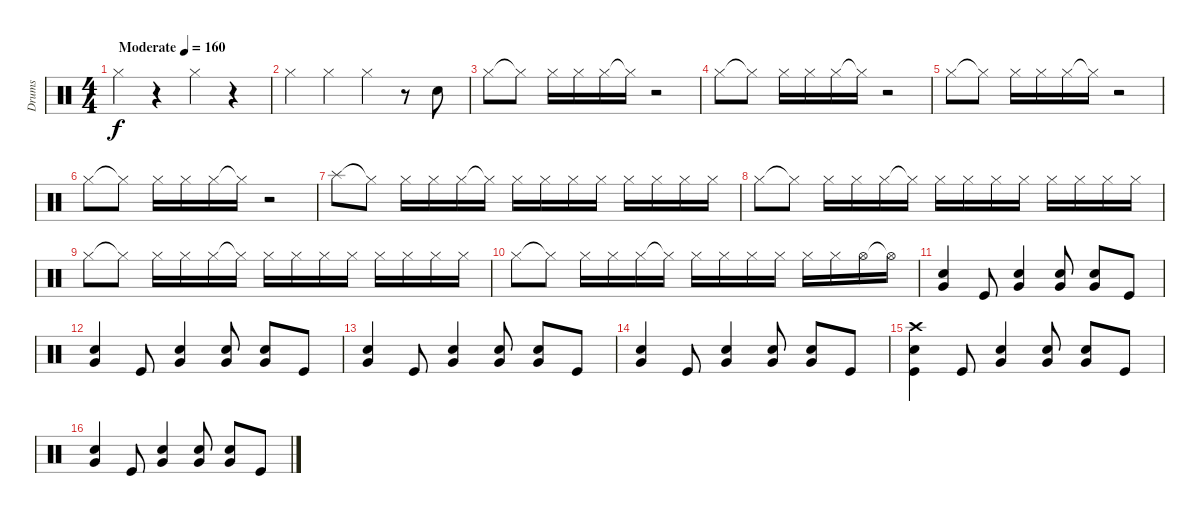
\track ("Drums" "Drums") {instrument percussion}
\staff {score}
\articulation defaults
\ts (4 4)
\tempo (160 "Moderate")
\clef neutral
\ks c "Hi-Hat (closed)".4{dy f}
r.4 "Hi-Hat (closed)".4 r.4 |
"Hi-Hat (closed)".4 "Hi-Hat (closed)".4 "Hi-Hat (closed)".4 r.8 "Snare (hit) 2".8 |
"Hi-Hat (closed)".8 "Hi-Hat (closed)"{t}.8 "Hi-Hat (closed)".16 "Hi-Hat (closed)".16 "Hi-Hat (closed)".16 "Hi-Hat (closed)"{t}.16 r.2 |
"Hi-Hat (closed)".8 "Hi-Hat (closed)"{t}.8 "Hi-Hat (closed)".16 "Hi-Hat (closed)".16 "Hi-Hat (closed)".16 "Hi-Hat (closed)"{t}.16 r.2 |
"Hi-Hat (closed)".8 "Hi-Hat (closed)"{t}.8 "Hi-Hat (closed)".16 "Hi-Hat (closed)".16 "Hi-Hat (closed)".16 "Hi-Hat (closed)"{t}.16 r.2 |
"Hi-Hat (closed)".8 "Hi-Hat (closed)"{t}.8 "Hi-Hat (closed)".16 "Hi-Hat (closed)".16 "Hi-Hat (closed)".16 "Hi-Hat (closed)"{t}.16 r.2 |
"Splash (hit)".8 "Hi-Hat (closed)"{t}.8 "Hi-Hat (closed)".16 "Hi-Hat (closed)".16 "Hi-Hat (closed)".16 "Hi-Hat (closed)"{t}.16 "Hi-Hat (closed)".16 "Hi-Hat (closed)".16 "Hi-Hat (closed)".16 "Hi-Hat (closed)".16 "Hi-Hat (closed)".16 "Hi-Hat (closed)".16 "Hi-Hat (closed)".16 "Hi-Hat (closed)".16 |
"Hi-Hat (closed)".8 "Hi-Hat (closed)"{t}.8 "Hi-Hat (closed)".16 "Hi-Hat (closed)".16 "Hi-Hat (closed)".16 "Hi-Hat (closed)"{t}.16 "Hi-Hat (closed)".16 "Hi-Hat (closed)".16 "Hi-Hat (closed)".16 "Hi-Hat (closed)".16 "Hi-Hat (closed)".16 "Hi-Hat (closed)".16 "Hi-Hat (closed)".16 "Hi-Hat (closed)".16 |
"Hi-Hat (closed)".8 "Hi-Hat (closed)"{t}.8 "Hi-Hat (closed)".16 "Hi-Hat (closed)".16 "Hi-Hat (closed)".16 "Hi-Hat (closed)"{t}.16 "Hi-Hat (closed)".16 "Hi-Hat (closed)".16 "Hi-Hat (closed)".16 "Hi-Hat (closed)".16 "Hi-Hat (closed)".16 "Hi-Hat (closed)".16 "Hi-Hat (closed)".16 "Hi-Hat (closed)".16 |
"Hi-Hat (closed)".8 "Hi-Hat (closed)"{t}.8 "Hi-Hat (closed)".16 "Hi-Hat (closed)".16 "Hi-Hat (closed)".16 "Hi-Hat (closed)"{t}.16 "Hi-Hat (closed)".16 "Hi-Hat (closed)".16 "Hi-Hat (closed)".16 "Hi-Hat (closed)".16 "Hi-Hat (closed)".16 "Hi-Hat (closed)".16 "Hi-Hat (open)".16 "Hi-Hat (open)"{t}.16 |
("Electric Snare (hit)" "Very Low Tom (hit)").4 "Kick (hit)".8 ("Electric Snare (hit)" "Very Low Tom (hit)").4 ("Electric Snare (hit)" "Very Low Tom (hit)").8 ("Electric Snare (hit)" "Very Low Tom (hit)").8 "Kick (hit)".8 |
("Electric Snare (hit)" "Very Low Tom (hit)").4 "Kick (hit)".8 ("Electric Snare (hit)" "Very Low Tom (hit)").4 ("Electric Snare (hit)" "Very Low Tom (hit)").8 ("Electric Snare (hit)" "Very Low Tom (hit)").8 "Kick (hit)".8 |
("Electric Snare (hit)" "Very Low Tom (hit)").4 "Kick (hit)".8 ("Electric Snare (hit)" "Very Low Tom (hit)").4 ("Electric Snare (hit)" "Very Low Tom (hit)").8 ("Electric Snare (hit)" "Very Low Tom (hit)").8 "Kick (hit)".8 |
("Electric Snare (hit)" "Very Low Tom (hit)").4 "Kick (hit)".8 ("Electric Snare (hit)" "Very Low Tom (hit)").4 ("Electric Snare (hit)" "Very Low Tom (hit)").8 ("Electric Snare (hit)" "Very Low Tom (hit)").8 "Kick (hit)".8 |
("Crash high (hit)" "Electric Snare (hit)" "Kick (hit)").4 "Kick (hit)".8 ("Electric Snare (hit)" "Very Low Tom (hit)").4 ("Electric Snare (hit)" "Very Low Tom (hit)").8 ("Electric Snare (hit)" "Very Low Tom (hit)").8 "Kick (hit)".8 |
("Electric Snare (hit)" "Very Low Tom (hit)").4 "Kick (hit)".8 ("Electric Snare (hit)" "Very Low Tom (hit)").4 ("Electric Snare (hit)" "Very Low Tom (hit)").8 ("Electric Snare (hit)" "Very Low Tom (hit)").8 "Kick (hit)".8
